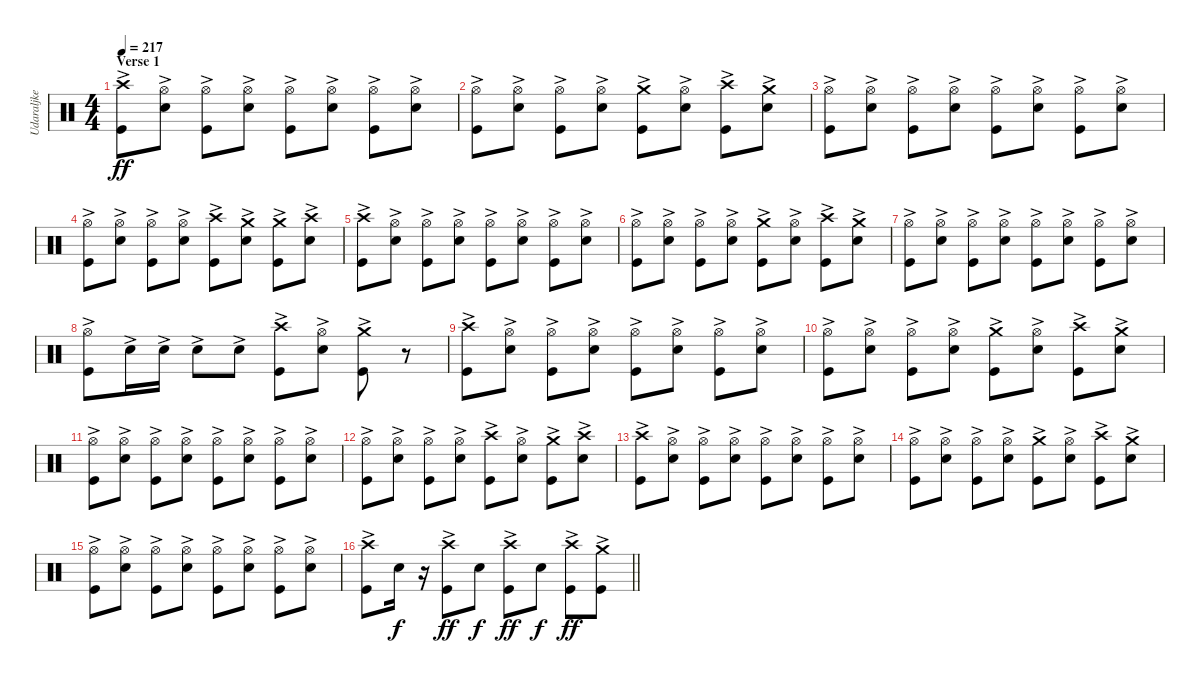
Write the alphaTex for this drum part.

\track ("Udaraljke" "Udaraljke") {instrument percussion}
\staff {score}
\articulation defaults
\ts (4 4)
\section ("" "Verse 1")
\tempo 217
\clef neutral
\ks c
("Kick (hit)"{ac} "Crash high (hit)"{ac}).8{dy ff} ("Snare (hit) 2"{ac} "Hi-Hat (open)").8 ("Kick (hit)"{ac} "Hi-Hat (open)").8 ("Snare (hit) 2"{ac} "Hi-Hat (open)").8 ("Kick (hit)"{ac} "Hi-Hat (open)").8 ("Snare (hit) 2"{ac} "Hi-Hat (open)").8 ("Kick (hit)"{ac} "Hi-Hat (open)").8 ("Snare (hit) 2"{ac} "Hi-Hat (open)").8 |
("Kick (hit)"{ac} "Hi-Hat (open)"{ac}).8 ("Snare (hit) 2"{ac} "Hi-Hat (open)").8 ("Kick (hit)"{ac} "Hi-Hat (open)").8 ("Snare (hit) 2"{ac} "Hi-Hat (open)").8 ("Kick (hit)"{ac} "Crash medium (hit)").8 ("Snare (hit) 2"{ac} "Hi-Hat (open)").8 ("Kick (hit)"{ac} "Crash high (hit)").8 ("Snare (hit) 2"{ac} "Crash medium (hit)").8 |
("Kick (hit)"{ac} "Hi-Hat (open)"{ac}).8 ("Snare (hit) 2"{ac} "Hi-Hat (open)").8 ("Kick (hit)"{ac} "Hi-Hat (open)").8 ("Snare (hit) 2"{ac} "Hi-Hat (open)").8 ("Kick (hit)"{ac} "Hi-Hat (open)").8 ("Snare (hit) 2"{ac} "Hi-Hat (open)").8 ("Kick (hit)"{ac} "Hi-Hat (open)").8 ("Snare (hit) 2"{ac} "Hi-Hat (open)").8 |
("Kick (hit)"{ac} "Hi-Hat (open)"{ac}).8 ("Snare (hit) 2"{ac} "Hi-Hat (open)").8 ("Kick (hit)"{ac} "Hi-Hat (open)").8 ("Snare (hit) 2"{ac} "Hi-Hat (open)").8 ("Kick (hit)"{ac} "Crash high (hit)").8 ("Snare (hit) 2"{ac} "Crash medium (hit)").8 ("Kick (hit)"{ac} "Crash medium (hit)").8 ("Snare (hit) 2"{ac} "Crash high (hit)").8 |
("Kick (hit)"{ac} "Crash high (hit)"{ac}).8 ("Snare (hit) 2"{ac} "Hi-Hat (open)").8 ("Kick (hit)"{ac} "Hi-Hat (open)").8 ("Snare (hit) 2"{ac} "Hi-Hat (open)").8 ("Kick (hit)"{ac} "Hi-Hat (open)").8 ("Snare (hit) 2"{ac} "Hi-Hat (open)").8 ("Kick (hit)"{ac} "Hi-Hat (open)").8 ("Snare (hit) 2"{ac} "Hi-Hat (open)").8 |
("Kick (hit)"{ac} "Hi-Hat (open)"{ac}).8 ("Snare (hit) 2"{ac} "Hi-Hat (open)").8 ("Kick (hit)"{ac} "Hi-Hat (open)").8 ("Snare (hit) 2"{ac} "Hi-Hat (open)").8 ("Kick (hit)"{ac} "Crash medium (hit)").8 ("Snare (hit) 2"{ac} "Hi-Hat (open)").8 ("Kick (hit)"{ac} "Crash high (hit)").8 ("Snare (hit) 2"{ac} "Crash medium (hit)").8 |
("Kick (hit)"{ac} "Hi-Hat (open)"{ac}).8 ("Snare (hit) 2"{ac} "Hi-Hat (open)").8 ("Kick (hit)"{ac} "Hi-Hat (open)").8 ("Snare (hit) 2"{ac} "Hi-Hat (open)").8 ("Kick (hit)"{ac} "Hi-Hat (open)").8 ("Snare (hit) 2"{ac} "Hi-Hat (open)").8 ("Kick (hit)"{ac} "Hi-Hat (open)").8 ("Snare (hit) 2"{ac} "Hi-Hat (open)").8 |
("Kick (hit)"{ac} "Hi-Hat (open)"{ac}).8 "Snare (hit) 2"{ac}.16 "Snare (hit) 2"{ac}.16 "Snare (hit) 2"{ac}.8 "Snare (hit) 2"{ac}.8 ("Kick (hit)"{ac} "Crash high (hit)").8 ("Snare (hit) 2"{ac} "Hi-Hat (open)").8 ("Kick (hit)"{ac} "Crash medium (hit)").8 r.8 |
("Kick (hit)"{ac} "Crash high (hit)"{ac}).8 ("Snare (hit) 2"{ac} "Hi-Hat (open)").8 ("Kick (hit)"{ac} "Hi-Hat (open)").8 ("Snare (hit) 2"{ac} "Hi-Hat (open)").8 ("Kick (hit)"{ac} "Hi-Hat (open)").8 ("Snare (hit) 2"{ac} "Hi-Hat (open)").8 ("Kick (hit)"{ac} "Hi-Hat (open)").8 ("Snare (hit) 2"{ac} "Hi-Hat (open)").8 |
("Kick (hit)"{ac} "Hi-Hat (open)"{ac}).8 ("Snare (hit) 2"{ac} "Hi-Hat (open)").8 ("Kick (hit)"{ac} "Hi-Hat (open)").8 ("Snare (hit) 2"{ac} "Hi-Hat (open)").8 ("Kick (hit)"{ac} "Crash medium (hit)").8 ("Snare (hit) 2"{ac} "Hi-Hat (open)").8 ("Kick (hit)"{ac} "Crash high (hit)").8 ("Snare (hit) 2"{ac} "Crash medium (hit)").8 |
("Kick (hit)"{ac} "Hi-Hat (open)"{ac}).8 ("Snare (hit) 2"{ac} "Hi-Hat (open)").8 ("Kick (hit)"{ac} "Hi-Hat (open)").8 ("Snare (hit) 2"{ac} "Hi-Hat (open)").8 ("Kick (hit)"{ac} "Hi-Hat (open)").8 ("Snare (hit) 2"{ac} "Hi-Hat (open)").8 ("Kick (hit)"{ac} "Hi-Hat (open)").8 ("Snare (hit) 2"{ac} "Hi-Hat (open)").8 |
("Kick (hit)"{ac} "Hi-Hat (open)"{ac}).8 ("Snare (hit) 2"{ac} "Hi-Hat (open)").8 ("Kick (hit)"{ac} "Hi-Hat (open)").8 ("Snare (hit) 2"{ac} "Hi-Hat (open)").8 ("Kick (hit)"{ac} "Crash high (hit)").8 ("Snare (hit) 2"{ac} "Hi-Hat (open)").8 ("Kick (hit)"{ac} "Crash medium (hit)").8 ("Snare (hit) 2"{ac} "Crash high (hit)").8 |
("Kick (hit)"{ac} "Crash high (hit)"{ac}).8 ("Snare (hit) 2"{ac} "Hi-Hat (open)").8 ("Kick (hit)"{ac} "Hi-Hat (open)").8 ("Snare (hit) 2"{ac} "Hi-Hat (open)").8 ("Kick (hit)"{ac} "Hi-Hat (open)").8 ("Snare (hit) 2"{ac} "Hi-Hat (open)").8 ("Kick (hit)"{ac} "Hi-Hat (open)").8 ("Snare (hit) 2"{ac} "Hi-Hat (open)").8 |
("Kick (hit)"{ac} "Hi-Hat (open)"{ac}).8 ("Snare (hit) 2"{ac} "Hi-Hat (open)").8 ("Kick (hit)"{ac} "Hi-Hat (open)").8 ("Snare (hit) 2"{ac} "Hi-Hat (open)").8 ("Kick (hit)"{ac} "Crash medium (hit)").8 ("Snare (hit) 2"{ac} "Hi-Hat (open)").8 ("Kick (hit)"{ac} "Crash high (hit)").8 ("Snare (hit) 2"{ac} "Crash medium (hit)").8 |
("Kick (hit)"{ac} "Hi-Hat (open)"{ac}).8 ("Snare (hit) 2"{ac} "Hi-Hat (open)").8 ("Kick (hit)"{ac} "Hi-Hat (open)").8 ("Snare (hit) 2"{ac} "Hi-Hat (open)").8 ("Kick (hit)"{ac} "Hi-Hat (open)").8 ("Snare (hit) 2"{ac} "Hi-Hat (open)").8 ("Kick (hit)"{ac} "Hi-Hat (open)").8 ("Snare (hit) 2"{ac} "Hi-Hat (open)").8 |
\barLineRight lightlight
("Kick (hit)"{ac} "Crash high (hit)"{ac}).8 "Snare (hit) 2".16{dy f} r.16 ("Kick (hit)"{ac} "Crash high (hit)").8{dy ff} "Snare (hit) 2".8{dy f} ("Kick (hit)"{ac} "Crash high (hit)").8{dy ff} "Snare (hit) 2".8{dy f} ("Kick (hit)"{ac} "Crash high (hit)").8{dy ff} ("Kick (hit)"{ac} "Crash medium (hit)").8
